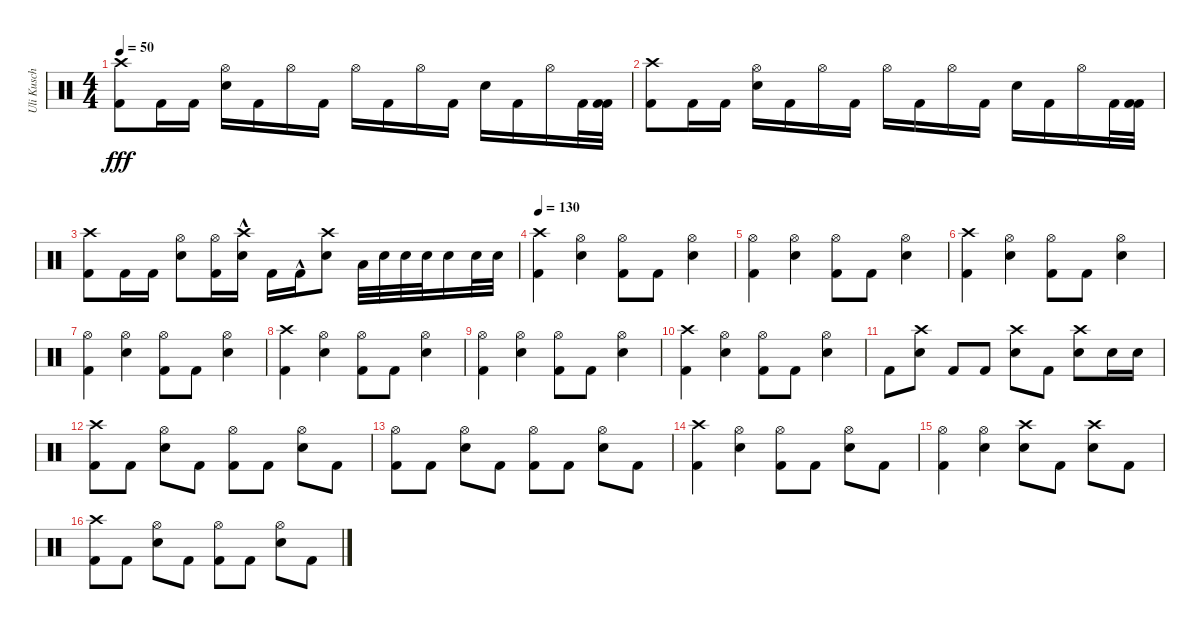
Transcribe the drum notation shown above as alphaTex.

\track ("Uli Kusch" "Uli Kusch") {instrument percussion}
\staff {score}
\articulation defaults
\ts (4 4)
\tempo 50
\clef neutral
\ks c
("Crash high (hit)" "Kick (hit) 2").8{dy fff} "Kick (hit) 2".16 "Kick (hit) 2".16 ("Hi-Hat (open)" "Electric Snare (hit)").16 "Kick (hit) 2".16 "Hi-Hat (open)".16 "Kick (hit) 2".16 "Hi-Hat (open)".16 "Kick (hit) 2".16 "Hi-Hat (open)".16 "Kick (hit) 2".16 "Electric Snare (hit)".16 "Kick (hit) 2".16 "Hi-Hat (open)".16 "Kick (hit) 2".32 ("Kick (hit) 2" "Kick (hit) 2").32 |
("Crash high (hit)" "Kick (hit) 2").8 "Kick (hit) 2".16 "Kick (hit) 2".16 ("Hi-Hat (open)" "Electric Snare (hit)").16 "Kick (hit) 2".16 "Hi-Hat (open)".16 "Kick (hit) 2".16 "Hi-Hat (open)".16 "Kick (hit) 2".16 "Hi-Hat (open)".16 "Kick (hit) 2".16 "Electric Snare (hit)".16 "Kick (hit) 2".16 "Hi-Hat (open)".16 "Kick (hit) 2".32 ("Kick (hit) 2" "Kick (hit) 2").32 |
("Crash high (hit)" "Kick (hit) 2").8 "Kick (hit) 2".16 "Kick (hit) 2".16 ("Hi-Hat (open)" "Electric Snare (hit)").8 ("Kick (hit) 2" "Hi-Hat (open)").16 ("Crash high (hit)"{hac} "Electric Snare (hit)").16 "Kick (hit) 2".16 "Kick (hit) 2"{hac}.16 ("Crash high (hit)" "Electric Snare (hit)").8 "Low Tom (hit)".32 "Electric Snare (hit)".32 "Electric Snare (hit)".32 "Electric Snare (hit)".32 "Electric Snare (hit)".16 "Electric Snare (hit)".32 "Electric Snare (hit)".32 |
\tempo 130
("Crash high (hit)" "Kick (hit) 2").4 ("Electric Snare (hit)" "Hi-Hat (open)").4 ("Hi-Hat (open)" "Kick (hit) 2").8 "Kick (hit) 2".8 ("Electric Snare (hit)" "Hi-Hat (open)").4 |
("Kick (hit) 2" "Hi-Hat (open)").4 ("Electric Snare (hit)" "Hi-Hat (open)").4 ("Hi-Hat (open)" "Kick (hit) 2").8 "Kick (hit) 2".8 ("Electric Snare (hit)" "Hi-Hat (open)").4 |
("Crash high (hit)" "Kick (hit) 2").4 ("Electric Snare (hit)" "Hi-Hat (open)").4 ("Hi-Hat (open)" "Kick (hit) 2").8 "Kick (hit) 2".8 ("Electric Snare (hit)" "Hi-Hat (open)").4 |
("Kick (hit) 2" "Hi-Hat (open)").4 ("Electric Snare (hit)" "Hi-Hat (open)").4 ("Hi-Hat (open)" "Kick (hit) 2").8 "Kick (hit) 2".8 ("Electric Snare (hit)" "Hi-Hat (open)").4 |
("Crash high (hit)" "Kick (hit) 2").4 ("Electric Snare (hit)" "Hi-Hat (open)").4 ("Hi-Hat (open)" "Kick (hit) 2").8 "Kick (hit) 2".8 ("Electric Snare (hit)" "Hi-Hat (open)").4 |
("Kick (hit) 2" "Hi-Hat (open)").4 ("Electric Snare (hit)" "Hi-Hat (open)").4 ("Hi-Hat (open)" "Kick (hit) 2").8 "Kick (hit) 2".8 ("Electric Snare (hit)" "Hi-Hat (open)").4 |
("Crash high (hit)" "Kick (hit) 2").4 ("Electric Snare (hit)" "Hi-Hat (open)").4 ("Hi-Hat (open)" "Kick (hit) 2").8 "Kick (hit) 2".8 ("Electric Snare (hit)" "Hi-Hat (open)").4 |
"Kick (hit) 2".8 ("Crash high (hit)" "Electric Snare (hit)").8 "Kick (hit) 2".8 "Kick (hit) 2".8 ("Crash high (hit)" "Electric Snare (hit)").8 "Kick (hit) 2".8 ("Crash high (hit)" "Electric Snare (hit)").8 "Electric Snare (hit)".16 "Electric Snare (hit)".16 |
("Crash high (hit)" "Kick (hit) 2").8 "Kick (hit) 2".8 ("Electric Snare (hit)" "Hi-Hat (open)").8 "Kick (hit) 2".8 ("Hi-Hat (open)" "Kick (hit) 2").8 "Kick (hit) 2".8 ("Electric Snare (hit)" "Hi-Hat (open)").8 "Kick (hit) 2".8 |
("Kick (hit) 2" "Hi-Hat (open)").8 "Kick (hit) 2".8 ("Electric Snare (hit)" "Hi-Hat (open)").8 "Kick (hit) 2".8 ("Hi-Hat (open)" "Kick (hit) 2").8 "Kick (hit) 2".8 ("Electric Snare (hit)" "Hi-Hat (open)").8 "Kick (hit) 2".8 |
("Crash high (hit)" "Kick (hit) 2").4 ("Electric Snare (hit)" "Hi-Hat (open)").4 ("Hi-Hat (open)" "Kick (hit) 2").8 "Kick (hit) 2".8 ("Electric Snare (hit)" "Hi-Hat (open)").8 "Kick (hit) 2".8 |
("Hi-Hat (open)" "Kick (hit) 2").4 ("Electric Snare (hit)" "Hi-Hat (open)").4 ("Crash high (hit)" "Electric Snare (hit)").8 "Kick (hit) 2".8 ("Electric Snare (hit)" "Crash high (hit)").8 "Kick (hit) 2".8 |
("Crash high (hit)" "Kick (hit) 2").8 "Kick (hit) 2".8 ("Electric Snare (hit)" "Hi-Hat (open)").8 "Kick (hit) 2".8 ("Hi-Hat (open)" "Kick (hit) 2").8 "Kick (hit) 2".8 ("Electric Snare (hit)" "Hi-Hat (open)").8 "Kick (hit) 2".8
